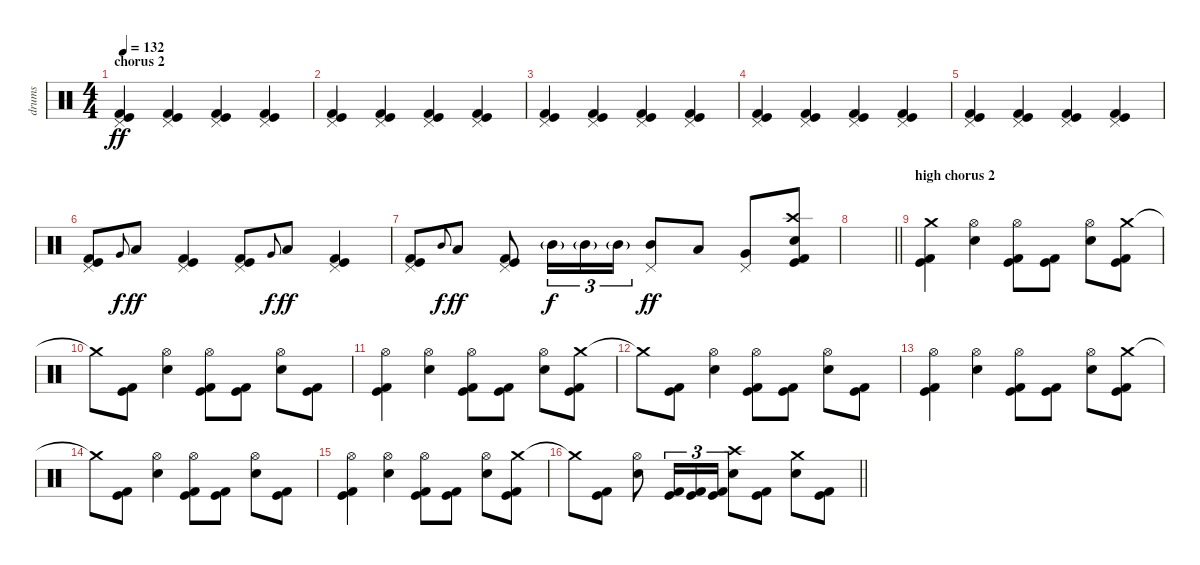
\track ("drums" "drums") {instrument percussion}
\staff {score}
\articulation defaults
\ts (4 4)
\section ("" "chorus 2")
\tempo 132
\clef neutral
\ks c
("Pedal Hi-Hat (hit)" "Kick (hit)" "Kick (hit) 2").4{dy ff} ("Pedal Hi-Hat (hit)" "Kick (hit)" "Kick (hit) 2").4 ("Pedal Hi-Hat (hit)" "Kick (hit)" "Kick (hit) 2").4 ("Pedal Hi-Hat (hit)" "Kick (hit)" "Kick (hit) 2").4 |
("Pedal Hi-Hat (hit)" "Kick (hit)" "Kick (hit) 2").4 ("Pedal Hi-Hat (hit)" "Kick (hit)" "Kick (hit) 2").4 ("Pedal Hi-Hat (hit)" "Kick (hit)" "Kick (hit) 2").4 ("Pedal Hi-Hat (hit)" "Kick (hit)" "Kick (hit) 2").4 |
("Pedal Hi-Hat (hit)" "Kick (hit)" "Kick (hit) 2").4 ("Pedal Hi-Hat (hit)" "Kick (hit)" "Kick (hit) 2").4 ("Pedal Hi-Hat (hit)" "Kick (hit)" "Kick (hit) 2").4 ("Pedal Hi-Hat (hit)" "Kick (hit)" "Kick (hit) 2").4 |
("Pedal Hi-Hat (hit)" "Kick (hit)" "Kick (hit) 2").4 ("Pedal Hi-Hat (hit)" "Kick (hit)" "Kick (hit) 2").4 ("Pedal Hi-Hat (hit)" "Kick (hit)" "Kick (hit) 2").4 ("Pedal Hi-Hat (hit)" "Kick (hit)" "Kick (hit) 2").4 |
("Pedal Hi-Hat (hit)" "Kick (hit)" "Kick (hit) 2").4 ("Pedal Hi-Hat (hit)" "Kick (hit)" "Kick (hit) 2").4 ("Pedal Hi-Hat (hit)" "Kick (hit)" "Kick (hit) 2").4 ("Pedal Hi-Hat (hit)" "Kick (hit)" "Kick (hit) 2").4 |
("Pedal Hi-Hat (hit)" "Kick (hit)" "Kick (hit) 2").8 "Very Low Tom (hit)".8{gr onbeat dy f} "Low Floor Tom (hit)".8{dy ff} ("Pedal Hi-Hat (hit)" "Kick (hit)" "Kick (hit) 2").4 ("Pedal Hi-Hat (hit)" "Kick (hit)" "Kick (hit) 2").8 "Very Low Tom (hit)".8{gr onbeat dy f} "Low Tom (hit)".8{dy ff} ("Pedal Hi-Hat (hit)" "Kick (hit)" "Kick (hit) 2").4 |
("Pedal Hi-Hat (hit)" "Kick (hit)" "Kick (hit) 2").8 "Mid Tom (hit)".8{gr onbeat dy f} "Low Tom (hit)".8{dy ff} ("Pedal Hi-Hat (hit)" "Kick (hit)" "Kick (hit) 2").8 "Mid Tom (hit)"{g}.16{tu (3 2) dy f} "Mid Tom (hit)"{g}.16{tu (3 2)} "Mid Tom (hit)"{g}.16{tu (3 2)} ("Mid Tom (hit)" "Pedal Hi-Hat (hit)").8{dy ff} "Low Tom (hit)".8 ("Very Low Tom (hit)" "Pedal Hi-Hat (hit)").8 ("Crash high (hit)" "Electric Snare (hit)" "Kick (hit)" "Kick (hit) 2").8 |
\barLineRight lightlight
|
\section ("" "high chorus 2")
("Crash medium (hit)" "Kick (hit)" "Kick (hit) 2").4 ("Electric Snare (hit)" "Hi-Hat (open)").4 ("Hi-Hat (open)" "Kick (hit)" "Kick (hit) 2").8 ("Kick (hit)" "Kick (hit) 2").8 ("Electric Snare (hit)" "Hi-Hat (open)").8 ("Crash medium (hit)" "Kick (hit)" "Kick (hit) 2").8 |
"Crash medium (hit)"{t}.8 ("Kick (hit)" "Kick (hit) 2").8 ("Electric Snare (hit)" "Hi-Hat (open)").4 ("Hi-Hat (open)" "Kick (hit)" "Kick (hit) 2").8 ("Kick (hit)" "Kick (hit) 2").8 ("Electric Snare (hit)" "Hi-Hat (open)").8 ("Kick (hit)" "Kick (hit) 2").8 |
("Hi-Hat (open)" "Kick (hit)" "Kick (hit) 2").4 ("Electric Snare (hit)" "Hi-Hat (open)").4 ("Hi-Hat (open)" "Kick (hit)" "Kick (hit) 2").8 ("Kick (hit)" "Kick (hit) 2").8 ("Electric Snare (hit)" "Hi-Hat (open)").8 ("Crash medium (hit)" "Kick (hit)" "Kick (hit) 2").8 |
"Crash medium (hit)"{t}.8 ("Kick (hit)" "Kick (hit) 2").8 ("Electric Snare (hit)" "Hi-Hat (open)").4 ("Hi-Hat (open)" "Kick (hit)" "Kick (hit) 2").8 ("Kick (hit)" "Kick (hit) 2").8 ("Electric Snare (hit)" "Hi-Hat (open)").8 ("Kick (hit)" "Kick (hit) 2").8 |
("Hi-Hat (open)" "Kick (hit)" "Kick (hit) 2").4 ("Electric Snare (hit)" "Hi-Hat (open)").4 ("Hi-Hat (open)" "Kick (hit)" "Kick (hit) 2").8 ("Kick (hit)" "Kick (hit) 2").8 ("Electric Snare (hit)" "Hi-Hat (open)").8 ("Crash medium (hit)" "Kick (hit)" "Kick (hit) 2").8 |
"Crash medium (hit)"{t}.8 ("Kick (hit)" "Kick (hit) 2").8 ("Electric Snare (hit)" "Hi-Hat (open)").4 ("Hi-Hat (open)" "Kick (hit)" "Kick (hit) 2").8 ("Kick (hit)" "Kick (hit) 2").8 ("Electric Snare (hit)" "Hi-Hat (open)").8 ("Kick (hit)" "Kick (hit) 2").8 |
("Hi-Hat (open)" "Kick (hit)" "Kick (hit) 2").4 ("Electric Snare (hit)" "Hi-Hat (open)").4 ("Hi-Hat (open)" "Kick (hit)" "Kick (hit) 2").8 ("Kick (hit)" "Kick (hit) 2").8 ("Electric Snare (hit)" "Hi-Hat (open)").8 ("Crash medium (hit)" "Kick (hit)" "Kick (hit) 2").8 |
\barLineRight lightlight "Crash medium (hit)"{t}.8
("Kick (hit)" "Kick (hit) 2").8 ("Electric Snare (hit)" "Hi-Hat (open)").8 ("Kick (hit)" "Kick (hit) 2").16{tu (3 2)} ("Kick (hit)" "Kick (hit) 2").16{tu (3 2)} ("Kick (hit)" "Kick (hit) 2").16{tu (3 2)} ("Crash high (hit)" "Electric Snare (hit)").8 ("Kick (hit)" "Kick (hit) 2").8 ("Crash medium (hit)" "Electric Snare (hit)").8 ("Kick (hit)" "Kick (hit) 2").8
